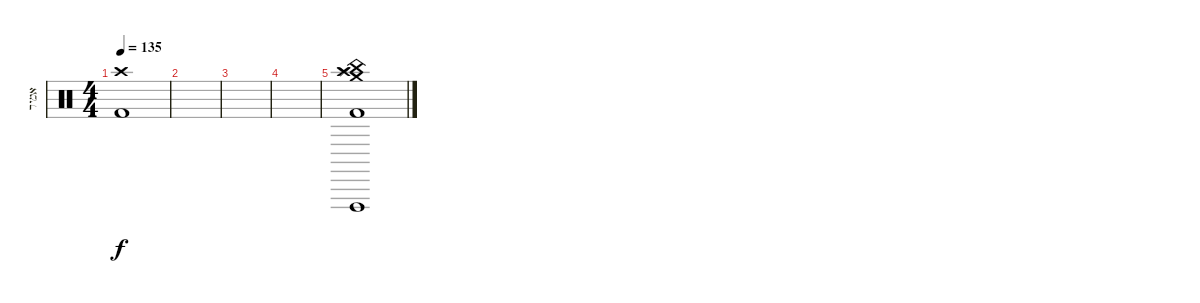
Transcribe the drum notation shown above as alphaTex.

\track ("אמיר" "אמיר") {instrument percussion}
\staff {score}
\articulation defaults
\ts (4 4)
\tempo 135
\clef neutral
\ks c
("Crash high (hit)" "Kick (hit) 2").1{dy f} |
|
|
|
("Crash high (hit)" "Crash medium (hit)" "Splash (hit)" "Vibraslap (hit)" "Kick (hit) 2" "China (hit)").1
